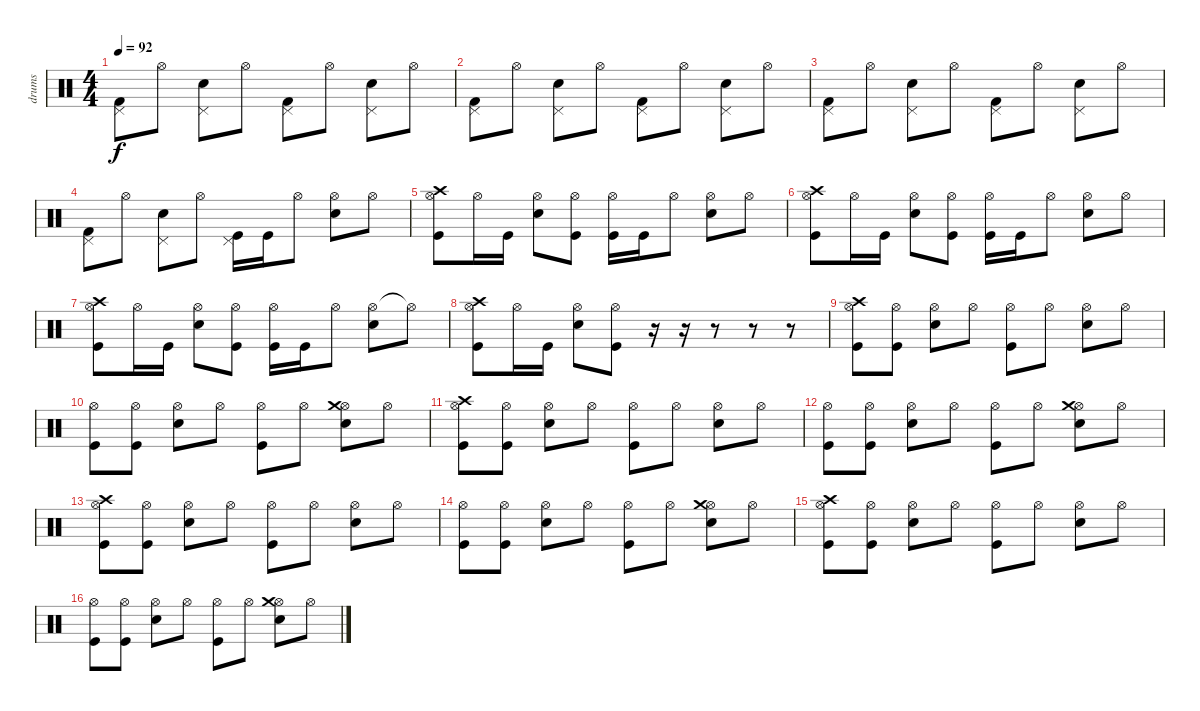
\track ("drums" "drums") {instrument percussion}
\staff {score}
\articulation defaults
\ts (4 4)
\tempo 92
\clef neutral
\ks c
("Kick (hit) 2" "Pedal Hi-Hat (hit)").8{dy f} "Hi-Hat (open)".8 ("Pedal Hi-Hat (hit)" "Snare (hit) 2").8 "Hi-Hat (open)".8 ("Kick (hit) 2" "Pedal Hi-Hat (hit)").8 "Hi-Hat (open)".8 ("Pedal Hi-Hat (hit)" "Snare (hit) 2").8 "Hi-Hat (open)".8 |
("Kick (hit) 2" "Pedal Hi-Hat (hit)").8 "Hi-Hat (open)".8 ("Pedal Hi-Hat (hit)" "Snare (hit) 2").8 "Hi-Hat (open)".8 ("Kick (hit) 2" "Pedal Hi-Hat (hit)").8 "Hi-Hat (open)".8 ("Pedal Hi-Hat (hit)" "Snare (hit) 2").8 "Hi-Hat (open)".8 |
("Kick (hit) 2" "Pedal Hi-Hat (hit)").8 "Hi-Hat (open)".8 ("Pedal Hi-Hat (hit)" "Snare (hit) 2").8 "Hi-Hat (open)".8 ("Kick (hit) 2" "Pedal Hi-Hat (hit)").8 "Hi-Hat (open)".8 ("Pedal Hi-Hat (hit)" "Snare (hit) 2").8 "Hi-Hat (open)".8 |
("Kick (hit) 2" "Pedal Hi-Hat (hit)").8 "Hi-Hat (open)".8 ("Pedal Hi-Hat (hit)" "Snare (hit) 2").8 "Hi-Hat (open)".8 ("Kick (hit)" "Pedal Hi-Hat (hit)").16 "Kick (hit)".16 "Hi-Hat (open)".8 ("Hi-Hat (open)" "Electric Snare (hit)").8 "Hi-Hat (open)".8 |
("Kick (hit)" "Hi-Hat (open)" "Crash high (hit)").8 "Hi-Hat (open)".16 "Kick (hit)".16 ("Hi-Hat (open)" "Electric Snare (hit)").8 ("Kick (hit)" "Hi-Hat (open)").8 ("Kick (hit)" "Hi-Hat (open)").16 "Kick (hit)".16 "Hi-Hat (open)".8 ("Hi-Hat (open)" "Electric Snare (hit)").8 "Hi-Hat (open)".8 |
("Kick (hit)" "Hi-Hat (open)" "Crash high (hit)").8 "Hi-Hat (open)".16 "Kick (hit)".16 ("Hi-Hat (open)" "Electric Snare (hit)").8 ("Kick (hit)" "Hi-Hat (open)").8 ("Kick (hit)" "Hi-Hat (open)").16 "Kick (hit)".16 "Hi-Hat (open)".8 ("Hi-Hat (open)" "Electric Snare (hit)").8 "Hi-Hat (open)".8 |
("Kick (hit)" "Hi-Hat (open)" "Crash high (hit)").8 "Hi-Hat (open)".16 "Kick (hit)".16 ("Hi-Hat (open)" "Electric Snare (hit)").8 ("Kick (hit)" "Hi-Hat (open)").8 ("Kick (hit)" "Hi-Hat (open)").16 "Kick (hit)".16 "Hi-Hat (open)".8 ("Hi-Hat (open)" "Electric Snare (hit)").8 "Hi-Hat (open)"{t}.8 |
("Kick (hit)" "Hi-Hat (open)" "Crash high (hit)").8 "Hi-Hat (open)".16 "Kick (hit)".16 ("Hi-Hat (open)" "Electric Snare (hit)").8 ("Kick (hit)" "Hi-Hat (open)").8 r.16 r.16 r.8 r.8 r.8 |
("Kick (hit)" "Hi-Hat (open)" "Crash high (hit)").8 ("Kick (hit)" "Hi-Hat (open)").8 ("Hi-Hat (open)" "Electric Snare (hit)").8 "Hi-Hat (open)".8 ("Kick (hit)" "Hi-Hat (open)").8 "Hi-Hat (open)".8 ("Hi-Hat (open)" "Electric Snare (hit)").8 "Hi-Hat (open)".8 |
("Kick (hit)" "Hi-Hat (open)").8 ("Kick (hit)" "Hi-Hat (open)").8 ("Hi-Hat (open)" "Electric Snare (hit)").8 "Hi-Hat (open)".8 ("Kick (hit)" "Hi-Hat (open)").8 "Hi-Hat (open)".8 ("Hi-Hat (open)" "Electric Snare (hit)" "Crash medium (hit)").8 "Hi-Hat (open)".8 |
("Kick (hit)" "Hi-Hat (open)" "Crash high (hit)").8 ("Kick (hit)" "Hi-Hat (open)").8 ("Hi-Hat (open)" "Electric Snare (hit)").8 "Hi-Hat (open)".8 ("Kick (hit)" "Hi-Hat (open)").8 "Hi-Hat (open)".8 ("Hi-Hat (open)" "Electric Snare (hit)").8 "Hi-Hat (open)".8 |
("Kick (hit)" "Hi-Hat (open)").8 ("Kick (hit)" "Hi-Hat (open)").8 ("Hi-Hat (open)" "Electric Snare (hit)").8 "Hi-Hat (open)".8 ("Kick (hit)" "Hi-Hat (open)").8 "Hi-Hat (open)".8 ("Hi-Hat (open)" "Electric Snare (hit)" "Crash medium (hit)").8 "Hi-Hat (open)".8 |
("Kick (hit)" "Hi-Hat (open)" "Crash high (hit)").8 ("Kick (hit)" "Hi-Hat (open)").8 ("Hi-Hat (open)" "Electric Snare (hit)").8 "Hi-Hat (open)".8 ("Kick (hit)" "Hi-Hat (open)").8 "Hi-Hat (open)".8 ("Hi-Hat (open)" "Electric Snare (hit)").8 "Hi-Hat (open)".8 |
("Kick (hit)" "Hi-Hat (open)").8 ("Kick (hit)" "Hi-Hat (open)").8 ("Hi-Hat (open)" "Electric Snare (hit)").8 "Hi-Hat (open)".8 ("Kick (hit)" "Hi-Hat (open)").8 "Hi-Hat (open)".8 ("Hi-Hat (open)" "Electric Snare (hit)" "Crash medium (hit)").8 "Hi-Hat (open)".8 |
("Kick (hit)" "Hi-Hat (open)" "Crash high (hit)").8 ("Kick (hit)" "Hi-Hat (open)").8 ("Hi-Hat (open)" "Electric Snare (hit)").8 "Hi-Hat (open)".8 ("Kick (hit)" "Hi-Hat (open)").8 "Hi-Hat (open)".8 ("Hi-Hat (open)" "Electric Snare (hit)").8 "Hi-Hat (open)".8 |
("Kick (hit)" "Hi-Hat (open)").8 ("Kick (hit)" "Hi-Hat (open)").8 ("Hi-Hat (open)" "Electric Snare (hit)").8 "Hi-Hat (open)".8 ("Kick (hit)" "Hi-Hat (open)").8 "Hi-Hat (open)".8 ("Hi-Hat (open)" "Electric Snare (hit)" "Crash medium (hit)").8 "Hi-Hat (open)".8
